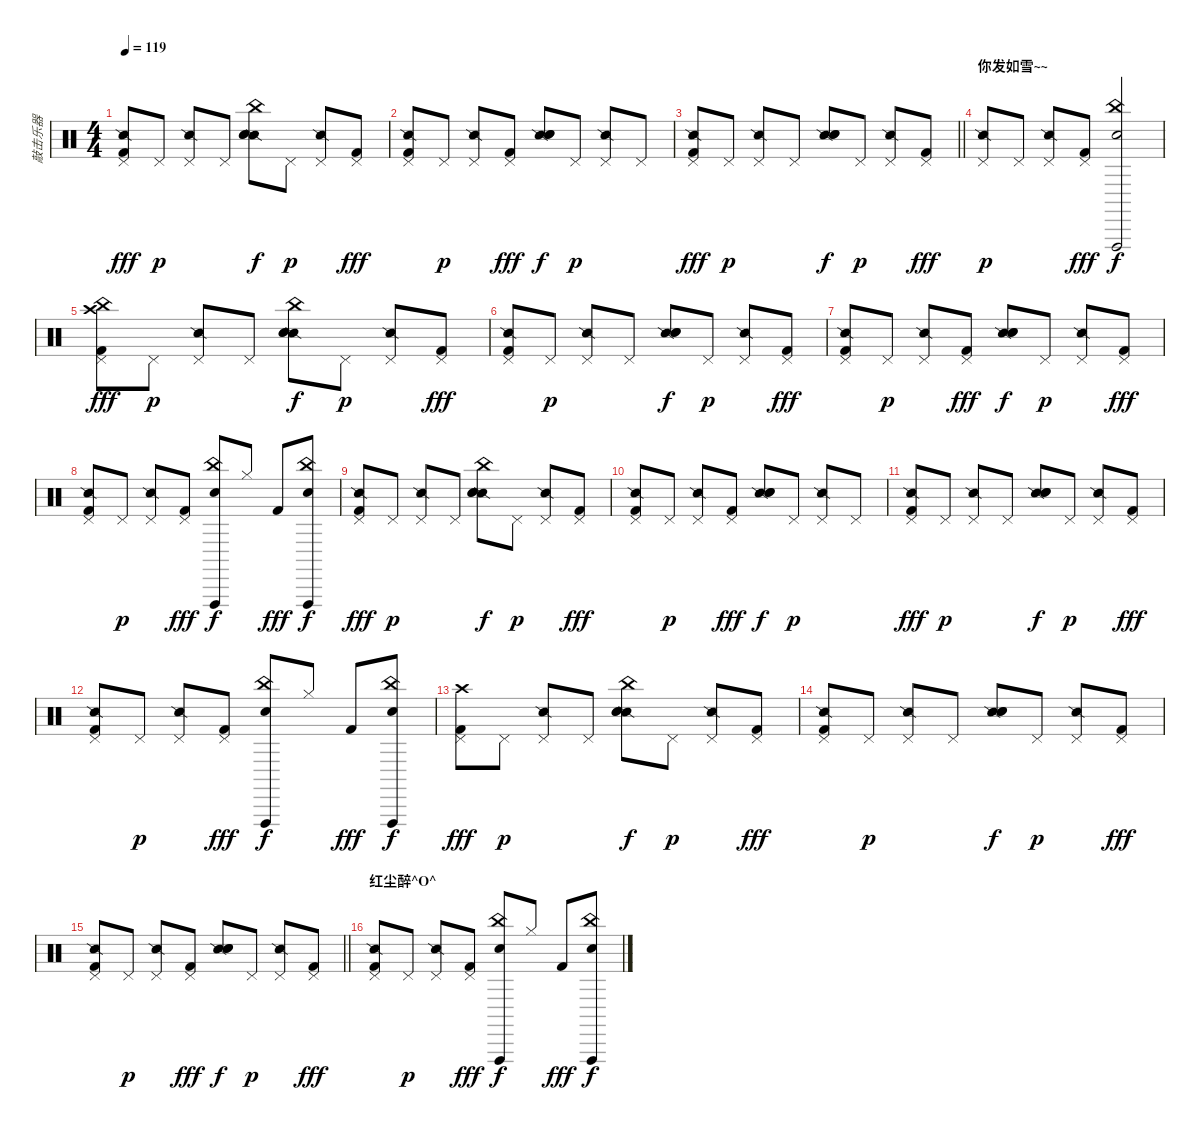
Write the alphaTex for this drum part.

\track ("敲击乐器" "敲击乐器") {instrument percussion}
\staff {score}
\articulation defaults
\ts (4 4)
\tempo 119
\clef neutral
\ks c
("Snare (side stick) 2" "Pedal Hi-Hat (hit)" "Kick (hit) 2").8{dy fff} "Pedal Hi-Hat (hit)".8{dy p} ("Snare (side stick) 2" "Pedal Hi-Hat (hit)").8 "Pedal Hi-Hat (hit)".8 ("Snare (side stick) 2" "Snare (hit) 2" "Hand Clap (hit)" "China (hit)").8{dy f} "Pedal Hi-Hat (hit)".8{dy p} ("Snare (side stick) 2" "Pedal Hi-Hat (hit)").8 ("Pedal Hi-Hat (hit)" "Kick (hit) 2").8{dy fff} |
("Snare (side stick) 2" "Pedal Hi-Hat (hit)" "Kick (hit) 2").8 "Pedal Hi-Hat (hit)".8{dy p} ("Snare (side stick) 2" "Pedal Hi-Hat (hit)").8 ("Pedal Hi-Hat (hit)" "Kick (hit) 2").8{dy fff} ("Snare (side stick) 2" "Snare (hit) 2" "Hand Clap (hit)").8{dy f} "Pedal Hi-Hat (hit)".8{dy p} ("Snare (side stick) 2" "Pedal Hi-Hat (hit)").8 "Pedal Hi-Hat (hit)".8 |
\barLineRight lightlight
("Snare (side stick) 2" "Pedal Hi-Hat (hit)" "Kick (hit) 2").8{dy fff} "Pedal Hi-Hat (hit)".8{dy p} ("Snare (side stick) 2" "Pedal Hi-Hat (hit)").8 "Pedal Hi-Hat (hit)".8 ("Snare (side stick) 2" "Snare (hit) 2" "Hand Clap (hit)").8{dy f} "Pedal Hi-Hat (hit)".8{dy p} ("Snare (side stick) 2" "Pedal Hi-Hat (hit)").8 ("Pedal Hi-Hat (hit)" "Kick (hit) 2").8{dy fff} |
\section ("" "你发如雪~~")
("Snare (side stick) 2" "Pedal Hi-Hat (hit)").8{dy p} "Pedal Hi-Hat (hit)".8 ("Snare (side stick) 2" "Pedal Hi-Hat (hit)").8 ("Pedal Hi-Hat (hit)" "Kick (hit) 2").8{dy fff} ("China (hit)" "Vibraslap (hit)" "Hand Clap (hit)").2{dy f} |
("China (hit)" "Crash high (hit)" "Pedal Hi-Hat (hit)" "Kick (hit) 2").8{dy fff} "Pedal Hi-Hat (hit)".8{dy p} ("Snare (side stick) 2" "Pedal Hi-Hat (hit)").8 "Pedal Hi-Hat (hit)".8 ("Snare (side stick) 2" "Snare (hit) 2" "Hand Clap (hit)" "China (hit)").8{dy f} "Pedal Hi-Hat (hit)".8{dy p} ("Snare (side stick) 2" "Pedal Hi-Hat (hit)").8 ("Pedal Hi-Hat (hit)" "Kick (hit) 2").8{dy fff} |
("Snare (side stick) 2" "Pedal Hi-Hat (hit)" "Kick (hit) 2").8 "Pedal Hi-Hat (hit)".8{dy p} ("Snare (side stick) 2" "Pedal Hi-Hat (hit)").8 "Pedal Hi-Hat (hit)".8 ("Snare (side stick) 2" "Snare (hit) 2" "Hand Clap (hit)").8{dy f} "Pedal Hi-Hat (hit)".8{dy p} ("Snare (side stick) 2" "Pedal Hi-Hat (hit)").8 ("Pedal Hi-Hat (hit)" "Kick (hit) 2").8{dy fff} |
("Snare (side stick) 2" "Pedal Hi-Hat (hit)" "Kick (hit) 2").8 "Pedal Hi-Hat (hit)".8{dy p} ("Snare (side stick) 2" "Pedal Hi-Hat (hit)").8 ("Pedal Hi-Hat (hit)" "Kick (hit) 2").8{dy fff} ("Snare (side stick) 2" "Snare (hit) 2" "Hand Clap (hit)").8{dy f} "Pedal Hi-Hat (hit)".8{dy p} ("Snare (side stick) 2" "Pedal Hi-Hat (hit)").8 ("Pedal Hi-Hat (hit)" "Kick (hit) 2").8{dy fff} |
("Snare (side stick) 2" "Pedal Hi-Hat (hit)" "Kick (hit) 2").8 "Pedal Hi-Hat (hit)".8{dy p} ("Snare (side stick) 2" "Pedal Hi-Hat (hit)").8 ("Pedal Hi-Hat (hit)" "Kick (hit) 2").8{dy fff} ("China (hit)" "Vibraslap (hit)" "Hand Clap (hit)").8{dy f} "Hi-Hat (closed)".8 "Kick (hit) 2".8{dy fff} ("China (hit)" "Vibraslap (hit)" "Hand Clap (hit)").8{dy f} |
("Snare (side stick) 2" "Pedal Hi-Hat (hit)" "Kick (hit) 2").8{dy fff} "Pedal Hi-Hat (hit)".8{dy p} ("Snare (side stick) 2" "Pedal Hi-Hat (hit)").8 "Pedal Hi-Hat (hit)".8 ("Snare (side stick) 2" "Snare (hit) 2" "Hand Clap (hit)" "China (hit)").8{dy f} "Pedal Hi-Hat (hit)".8{dy p} ("Snare (side stick) 2" "Pedal Hi-Hat (hit)").8 ("Pedal Hi-Hat (hit)" "Kick (hit) 2").8{dy fff} |
("Snare (side stick) 2" "Pedal Hi-Hat (hit)" "Kick (hit) 2").8 "Pedal Hi-Hat (hit)".8{dy p} ("Snare (side stick) 2" "Pedal Hi-Hat (hit)").8 ("Pedal Hi-Hat (hit)" "Kick (hit) 2").8{dy fff} ("Snare (side stick) 2" "Snare (hit) 2" "Hand Clap (hit)").8{dy f} "Pedal Hi-Hat (hit)".8{dy p} ("Snare (side stick) 2" "Pedal Hi-Hat (hit)").8 "Pedal Hi-Hat (hit)".8 |
("Snare (side stick) 2" "Pedal Hi-Hat (hit)" "Kick (hit) 2").8{dy fff} "Pedal Hi-Hat (hit)".8{dy p} ("Snare (side stick) 2" "Pedal Hi-Hat (hit)").8 "Pedal Hi-Hat (hit)".8 ("Snare (side stick) 2" "Snare (hit) 2" "Hand Clap (hit)").8{dy f} "Pedal Hi-Hat (hit)".8{dy p} ("Snare (side stick) 2" "Pedal Hi-Hat (hit)").8 ("Pedal Hi-Hat (hit)" "Kick (hit) 2").8{dy fff} |
("Snare (side stick) 2" "Pedal Hi-Hat (hit)" "Kick (hit) 2").8 "Pedal Hi-Hat (hit)".8{dy p} ("Snare (side stick) 2" "Pedal Hi-Hat (hit)").8 ("Pedal Hi-Hat (hit)" "Kick (hit) 2").8{dy fff} ("China (hit)" "Vibraslap (hit)" "Hand Clap (hit)").8{dy f} "Hi-Hat (closed)".8 "Kick (hit) 2".8{dy fff} ("China (hit)" "Vibraslap (hit)" "Hand Clap (hit)").8{dy f} |
("Crash high (hit)" "Pedal Hi-Hat (hit)" "Kick (hit) 2").8{dy fff} "Pedal Hi-Hat (hit)".8{dy p} ("Snare (side stick) 2" "Pedal Hi-Hat (hit)").8 "Pedal Hi-Hat (hit)".8 ("Snare (side stick) 2" "Snare (hit) 2" "Hand Clap (hit)" "China (hit)").8{dy f} "Pedal Hi-Hat (hit)".8{dy p} ("Snare (side stick) 2" "Pedal Hi-Hat (hit)").8 ("Pedal Hi-Hat (hit)" "Kick (hit) 2").8{dy fff} |
("Snare (side stick) 2" "Pedal Hi-Hat (hit)" "Kick (hit) 2").8 "Pedal Hi-Hat (hit)".8{dy p} ("Snare (side stick) 2" "Pedal Hi-Hat (hit)").8 "Pedal Hi-Hat (hit)".8 ("Snare (side stick) 2" "Snare (hit) 2" "Hand Clap (hit)").8{dy f} "Pedal Hi-Hat (hit)".8{dy p} ("Snare (side stick) 2" "Pedal Hi-Hat (hit)").8 ("Pedal Hi-Hat (hit)" "Kick (hit) 2").8{dy fff} |
\barLineRight lightlight
("Snare (side stick) 2" "Pedal Hi-Hat (hit)" "Kick (hit) 2").8 "Pedal Hi-Hat (hit)".8{dy p} ("Snare (side stick) 2" "Pedal Hi-Hat (hit)").8 ("Pedal Hi-Hat (hit)" "Kick (hit) 2").8{dy fff} ("Snare (side stick) 2" "Snare (hit) 2" "Hand Clap (hit)").8{dy f} "Pedal Hi-Hat (hit)".8{dy p} ("Snare (side stick) 2" "Pedal Hi-Hat (hit)").8 ("Pedal Hi-Hat (hit)" "Kick (hit) 2").8{dy fff} |
\section ("" "红尘醉^O^")
("Snare (side stick) 2" "Pedal Hi-Hat (hit)" "Kick (hit) 2").8 "Pedal Hi-Hat (hit)".8{dy p} ("Snare (side stick) 2" "Pedal Hi-Hat (hit)").8 ("Pedal Hi-Hat (hit)" "Kick (hit) 2").8{dy fff} ("China (hit)" "Vibraslap (hit)" "Hand Clap (hit)").8{dy f} "Hi-Hat (closed)".8 "Kick (hit) 2".8{dy fff} ("China (hit)" "Vibraslap (hit)" "Hand Clap (hit)").8{dy f}
